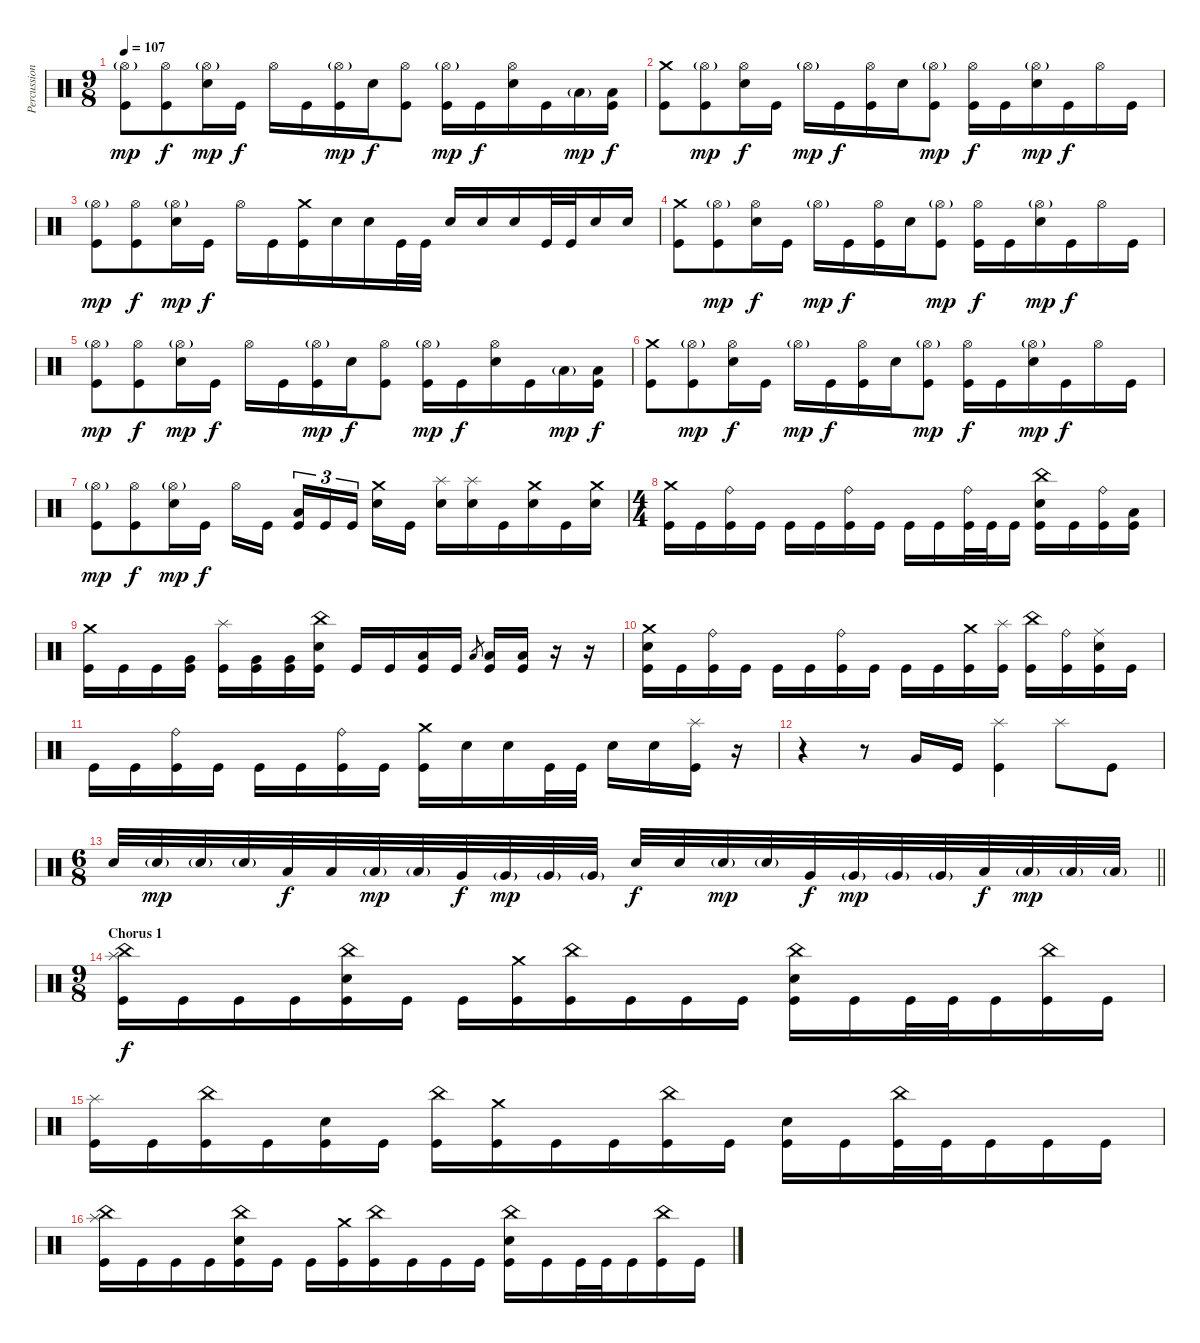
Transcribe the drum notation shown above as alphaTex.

\track ("Percussion" "Percussion") {instrument percussion}
\staff {score}
\articulation defaults
\ts (9 8)
\tempo 107
\clef neutral
\ks c
("Hi-Hat (open)"{g} "Kick (hit)").8{dy mp} ("Hi-Hat (open)" "Kick (hit)").8{dy f} ("Hi-Hat (open)"{g} "Electric Snare (hit)").16{dy mp} "Kick (hit)".16{dy f} "Hi-Hat (open)".16 "Kick (hit)".16 ("Hi-Hat (open)"{g} "Kick (hit)").16{dy mp} "Electric Snare (hit)".16{dy f} ("Hi-Hat (open)" "Kick (hit)").8 ("Hi-Hat (open)"{g} "Kick (hit)").16{dy mp} "Kick (hit)".16{dy f} ("Hi-Hat (open)" "Electric Snare (hit)").16 "Kick (hit)".16 "Low Tom (hit)"{g}.16{dy mp} ("Low Floor Tom (hit)" "Kick (hit)").16{dy f} |
("Crash medium (hit)" "Kick (hit)").8 ("Hi-Hat (open)"{g} "Kick (hit)").8{dy mp} ("Hi-Hat (open)" "Electric Snare (hit)").16{dy f} "Kick (hit)".16 "Hi-Hat (open)"{g}.16{dy mp} "Kick (hit)".16{dy f} ("Hi-Hat (open)" "Kick (hit)").16 "Electric Snare (hit)".16 ("Hi-Hat (open)"{g} "Kick (hit)").8{dy mp} ("Hi-Hat (open)" "Kick (hit)").16{dy f} "Kick (hit)".16 ("Hi-Hat (open)"{g} "Electric Snare (hit)").16{dy mp} "Kick (hit)".16{dy f} "Hi-Hat (open)".16 "Kick (hit)".16 |
("Hi-Hat (open)"{g} "Kick (hit)").8{dy mp} ("Hi-Hat (open)" "Kick (hit)").8{dy f} ("Hi-Hat (open)"{g} "Electric Snare (hit)").16{dy mp} "Kick (hit)".16{dy f} "Hi-Hat (open)".16 "Kick (hit)".16 ("Crash medium (hit)" "Kick (hit)").16 "Electric Snare (hit)".16 "Electric Snare (hit)".16 "Kick (hit)".32 "Kick (hit)".32 "Electric Snare (hit)".16 "Electric Snare (hit)".16 "Electric Snare (hit)".16 "Kick (hit)".32 "Kick (hit)".32 "Electric Snare (hit)".16 "Electric Snare (hit)".16 |
("Crash medium (hit)" "Kick (hit)").8 ("Hi-Hat (open)"{g} "Kick (hit)").8{dy mp} ("Hi-Hat (open)" "Electric Snare (hit)").16{dy f} "Kick (hit)".16 "Hi-Hat (open)"{g}.16{dy mp} "Kick (hit)".16{dy f} ("Hi-Hat (open)" "Kick (hit)").16 "Electric Snare (hit)".16 ("Hi-Hat (open)"{g} "Kick (hit)").8{dy mp} ("Hi-Hat (open)" "Kick (hit)").16{dy f} "Kick (hit)".16 ("Hi-Hat (open)"{g} "Electric Snare (hit)").16{dy mp} "Kick (hit)".16{dy f} "Hi-Hat (open)".16 "Kick (hit)".16 |
("Hi-Hat (open)"{g} "Kick (hit)").8{dy mp} ("Hi-Hat (open)" "Kick (hit)").8{dy f} ("Hi-Hat (open)"{g} "Electric Snare (hit)").16{dy mp} "Kick (hit)".16{dy f} "Hi-Hat (open)".16 "Kick (hit)".16 ("Hi-Hat (open)"{g} "Kick (hit)").16{dy mp} "Electric Snare (hit)".16{dy f} ("Hi-Hat (open)" "Kick (hit)").8 ("Hi-Hat (open)"{g} "Kick (hit)").16{dy mp} "Kick (hit)".16{dy f} ("Hi-Hat (open)" "Electric Snare (hit)").16 "Kick (hit)".16 "Low Tom (hit)"{g}.16{dy mp} ("Low Floor Tom (hit)" "Kick (hit)").16{dy f} |
("Crash medium (hit)" "Kick (hit)").8 ("Hi-Hat (open)"{g} "Kick (hit)").8{dy mp} ("Hi-Hat (open)" "Electric Snare (hit)").16{dy f} "Kick (hit)".16 "Hi-Hat (open)"{g}.16{dy mp} "Kick (hit)".16{dy f} ("Hi-Hat (open)" "Kick (hit)").16 "Electric Snare (hit)".16 ("Hi-Hat (open)"{g} "Kick (hit)").8{dy mp} ("Hi-Hat (open)" "Kick (hit)").16{dy f} "Kick (hit)".16 ("Hi-Hat (open)"{g} "Electric Snare (hit)").16{dy mp} "Kick (hit)".16{dy f} "Hi-Hat (open)".16 "Kick (hit)".16 |
("Hi-Hat (open)"{g} "Kick (hit)").8{dy mp} ("Hi-Hat (open)" "Kick (hit)").8{dy f} ("Hi-Hat (open)"{g} "Electric Snare (hit)").16{dy mp} "Kick (hit)".16{dy f} "Hi-Hat (open)".16 "Kick (hit)".16{beam splitsecondary} ("Low Floor Tom (hit)" "Kick (hit)").16{tu (3 2)} "Kick (hit)".16{tu (3 2)} "Kick (hit)".16{tu (3 2) beam splitsecondary} ("Crash medium (hit)" "Electric Snare (hit)").16 "Kick (hit)".16 ("Splash (hit)" "Electric Snare (hit)").16 ("Splash (hit)" "Electric Snare (hit)").16 "Kick (hit)".16 ("Crash medium (hit)" "Electric Snare (hit)").16 "Kick (hit)".16 ("Crash medium (hit)" "Electric Snare (hit)").16 |
\ts (4 4)
("Crash medium (hit)" "Kick (hit)").16 "Kick (hit)".16 ("Ride (bell)" "Kick (hit)").16 "Kick (hit)".16 "Kick (hit)".16 "Kick (hit)".16 ("Ride (bell)" "Kick (hit)").16 "Kick (hit)".16 "Kick (hit)".16 "Kick (hit)".16 ("Ride (bell)" "Kick (hit)").32 "Kick (hit)".32 "Kick (hit)".16 ("China (hit)" "Electric Snare (hit)" "Kick (hit)").16 "Kick (hit)".16 ("Ride (bell)" "Kick (hit)").16 ("Low Tom (hit)" "Kick (hit)").16 |
("Crash medium (hit)" "Kick (hit)").16 "Kick (hit)".16 "Kick (hit)".16 ("Very Low Tom (hit)" "Kick (hit)").16 ("Splash (hit)" "Kick (hit)").16 ("Very Low Tom (hit)" "Kick (hit)").16 ("Very Low Tom (hit)" "Kick (hit)").16 ("China (hit)" "Electric Snare (hit)" "Kick (hit)").16 "Kick (hit)".16 "Kick (hit)".16 ("Low Floor Tom (hit)" "Kick (hit)").16 "Kick (hit)".16 "Low Floor Tom (hit)".8{gr} ("Low Floor Tom (hit)" "Kick (hit)").16 ("Low Floor Tom (hit)" "Kick (hit)").16 r.16 r.16 |
("Crash medium (hit)" "Electric Snare (hit)" "Kick (hit)").16 "Kick (hit)".16 ("Ride (bell)" "Kick (hit)").16 "Kick (hit)".16 "Kick (hit)".16 "Kick (hit)".16 ("Ride (bell)" "Kick (hit)").16 "Kick (hit)".16 "Kick (hit)".16 "Kick (hit)".16 ("Crash medium (hit)" "Kick (hit)").16 ("Splash (hit)" "Kick (hit)").16 ("China (hit)" "Kick (hit)").16 ("Ride (bell)" "Kick (hit)").16 ("Ride (middle)" "Electric Snare (hit)" "Kick (hit)").16 "Kick (hit)".16 |
"Kick (hit)".16 "Kick (hit)".16 ("Ride (bell)" "Kick (hit)").16 "Kick (hit)".16 "Kick (hit)".16 "Kick (hit)".16 ("Ride (bell)" "Kick (hit)").16 "Kick (hit)".16 ("Crash medium (hit)" "Kick (hit)").16 "Electric Snare (hit)".16 "Electric Snare (hit)".16 "Kick (hit)".32 "Kick (hit)".32 "Electric Snare (hit)".16 "Electric Snare (hit)".16 ("Splash (hit)" "Kick (hit)").16 r.16 |
r.4 r.8 "Very Low Tom (hit)".16 "Kick (hit)".16 ("Splash (hit)" "Kick (hit)").4 "Splash (hit)".8 "Kick (hit)".8 |
\ts (6 8)
\barLineRight lightlight "Electric Snare (hit)".32 "Electric Snare (hit)"{g}.32{dy mp} "Electric Snare (hit)"{g}.32 "Electric Snare (hit)"{g}.32 "Low Tom (hit)".32{dy f} "Low Tom (hit)".32 "Low Tom (hit)"{g}.32{dy mp} "Low Tom (hit)"{g}.32 "Very Low Tom (hit)".32{dy f} "Very Low Tom (hit)"{g}.32{dy mp} "Very Low Tom (hit)"{g}.32 "Very Low Tom (hit)"{g}.32 "Electric Snare (hit)".32{dy f} "Electric Snare (hit)".32 "Electric Snare (hit)"{g}.32{dy mp} "Electric Snare (hit)"{g}.32 "Very Low Tom (hit)".32{dy f} "Very Low Tom (hit)"{g}.32{dy mp} "Very Low Tom (hit)"{g}.32 "Very Low Tom (hit)"{g}.32 "Low Floor Tom (hit)".32{dy f} "Low Floor Tom (hit)"{g}.32{dy mp} "Low Floor Tom (hit)"{g}.32 "Low Floor Tom (hit)"{g}.32
|
\ts (9 8)
\section ("" "Chorus 1")
("China (hit)" "Splash (hit)" "Kick (hit)").16{dy f} "Kick (hit)".16 "Kick (hit)".16 "Kick (hit)".16 ("China (hit)" "Electric Snare (hit)" "Kick (hit)").16 "Kick (hit)".16 "Kick (hit)".16 ("Crash medium (hit)" "Kick (hit)").16 ("China (hit)" "Kick (hit)").16 "Kick (hit)".16 "Kick (hit)".16 "Kick (hit)".16 ("China (hit)" "Electric Snare (hit)" "Kick (hit)").16 "Kick (hit)".16 "Kick (hit)".32 "Kick (hit)".32 "Kick (hit)".16 ("China (hit)" "Kick (hit)").16 "Kick (hit)".16 |
("Splash (hit)" "Kick (hit)").16 "Kick (hit)".16 ("China (hit)" "Kick (hit)").16 "Kick (hit)".16 ("Electric Snare (hit)" "Kick (hit)").16 "Kick (hit)".16 ("China (hit)" "Kick (hit)").16 ("Crash medium (hit)" "Kick (hit)").16 "Kick (hit)".16 "Kick (hit)".16 ("China (hit)" "Kick (hit)").16 "Kick (hit)".16 ("Electric Snare (hit)" "Kick (hit)").16 "Kick (hit)".16 ("China (hit)" "Kick (hit)").32 "Kick (hit)".32 "Kick (hit)".16 "Kick (hit)".16 "Kick (hit)".16 |
("China (hit)" "Splash (hit)" "Kick (hit)").16 "Kick (hit)".16 "Kick (hit)".16 "Kick (hit)".16 ("China (hit)" "Electric Snare (hit)" "Kick (hit)").16 "Kick (hit)".16 "Kick (hit)".16 ("Crash medium (hit)" "Kick (hit)").16 ("China (hit)" "Kick (hit)").16 "Kick (hit)".16 "Kick (hit)".16 "Kick (hit)".16 ("China (hit)" "Electric Snare (hit)" "Kick (hit)").16 "Kick (hit)".16 "Kick (hit)".32 "Kick (hit)".32 "Kick (hit)".16 ("China (hit)" "Kick (hit)").16 "Kick (hit)".16
